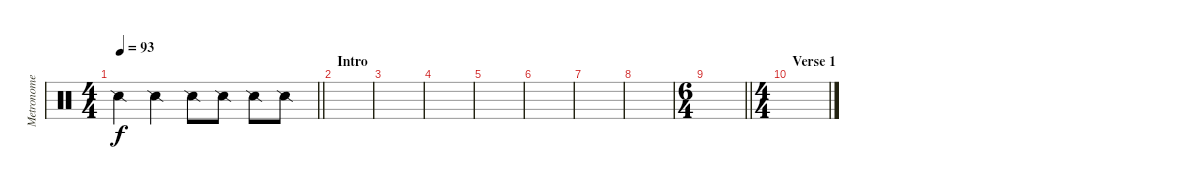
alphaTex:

\track ("Metronome" "Metronome") {instrument percussion}
\staff {score}
\articulation defaults
\ts (4 4)
\tempo 93
\clef neutral
\barLineRight lightlight
\ks c "Snare (side stick) 2".4{dy f} "Snare (side stick) 2".4 "Snare (side stick) 2".8 "Snare (side stick) 2".8 "Snare (side stick) 2".8 "Snare (side stick) 2".8
|
\section ("" "Intro")
|
|
|
|
|
|
|
\ts (6 4)
\barLineRight lightlight
|
\ts (4 4)
\section ("" "Verse 1")
